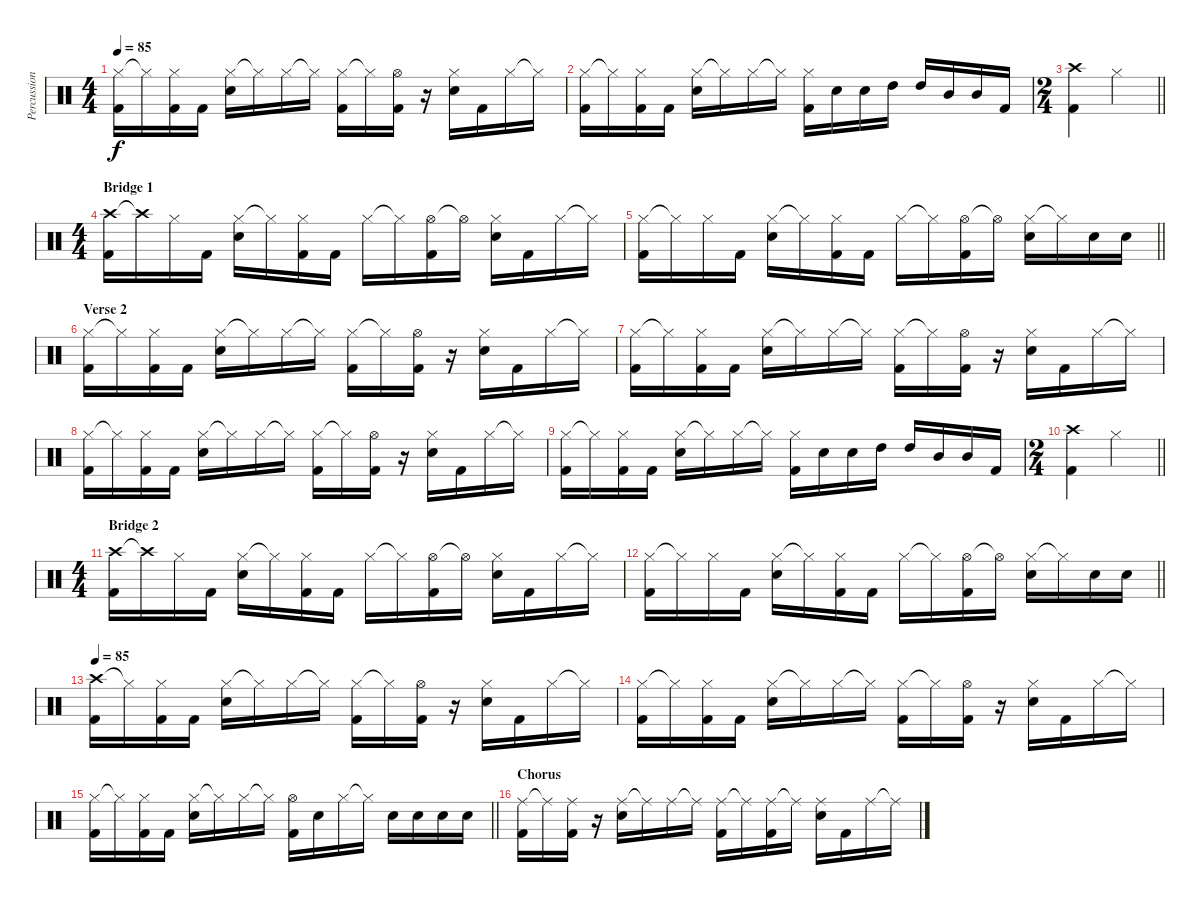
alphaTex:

\track ("Percussion" "Percussion") {instrument percussion}
\staff {score}
\articulation defaults
\ts (4 4)
\tempo 85
\clef neutral
\ks c
("Hi-Hat (closed)" "Kick (hit) 2").16{dy f} "Hi-Hat (closed)"{t}.16 ("Hi-Hat (closed)" "Kick (hit) 2").16 "Kick (hit) 2".16 ("Hi-Hat (closed)" "Electric Snare (hit)").16 "Hi-Hat (closed)"{t}.16 "Hi-Hat (closed)".16 "Hi-Hat (closed)"{t}.16 ("Hi-Hat (closed)" "Kick (hit) 2").16 "Hi-Hat (closed)"{t}.16 ("Hi-Hat (open)" "Kick (hit) 2").16 r.16 ("Hi-Hat (closed)" "Electric Snare (hit)").16 "Kick (hit) 2".16 "Hi-Hat (closed)".16 "Hi-Hat (closed)"{t}.16 |
("Hi-Hat (closed)" "Kick (hit) 2").16 "Hi-Hat (closed)"{t}.16 ("Hi-Hat (closed)" "Kick (hit) 2").16 "Kick (hit) 2".16 ("Hi-Hat (closed)" "Electric Snare (hit)").16 "Hi-Hat (closed)"{t}.16 "Hi-Hat (closed)".16 "Hi-Hat (closed)"{t}.16 ("Hi-Hat (closed)" "Kick (hit) 2").16 "Electric Snare (hit)".16 "Electric Snare (hit)".16 "High Tom (hit)".16 "High Tom (hit)".16 "Mid Tom (hit)".16 "Mid Tom (hit)".16 "Kick (hit) 2".16 |
\ts (2 4)
\barLineRight lightlight
("Crash high (hit)" "Kick (hit) 2").4 "Hi-Hat (closed)".4 |
\ts (4 4)
\section ("" "Bridge 1")
("Crash high (hit)" "Kick (hit) 2").16 "Crash high (hit)"{t}.16 "Hi-Hat (closed)".16 "Kick (hit) 2".16 ("Hi-Hat (closed)" "Electric Snare (hit)").16 "Hi-Hat (closed)"{t}.16 ("Hi-Hat (closed)" "Kick (hit) 2").16 "Kick (hit) 2".16 "Hi-Hat (closed)".16 "Hi-Hat (closed)"{t}.16 ("Hi-Hat (open)" "Kick (hit) 2").16 "Hi-Hat (open)"{t}.16 ("Hi-Hat (closed)" "Electric Snare (hit)").16 "Kick (hit) 2".16 "Hi-Hat (closed)".16 "Hi-Hat (closed)"{t}.16 |
\barLineRight lightlight
("Hi-Hat (closed)" "Kick (hit) 2").16 "Hi-Hat (closed)"{t}.16 "Hi-Hat (closed)".16 "Kick (hit) 2".16 ("Hi-Hat (closed)" "Electric Snare (hit)").16 "Hi-Hat (closed)"{t}.16 ("Hi-Hat (closed)" "Kick (hit) 2").16 "Kick (hit) 2".16 "Hi-Hat (closed)".16 "Hi-Hat (closed)"{t}.16 ("Hi-Hat (open)" "Kick (hit) 2").16 "Hi-Hat (open)"{t}.16 ("Hi-Hat (closed)" "Electric Snare (hit)").16 "Hi-Hat (closed)"{t}.16 "Electric Snare (hit)".16 "Electric Snare (hit)".16 |
\section ("" "Verse 2")
("Hi-Hat (closed)" "Kick (hit) 2").16 "Hi-Hat (closed)"{t}.16 ("Hi-Hat (closed)" "Kick (hit) 2").16 "Kick (hit) 2".16 ("Hi-Hat (closed)" "Electric Snare (hit)").16 "Hi-Hat (closed)"{t}.16 "Hi-Hat (closed)".16 "Hi-Hat (closed)"{t}.16 ("Hi-Hat (closed)" "Kick (hit) 2").16 "Hi-Hat (closed)"{t}.16 ("Hi-Hat (open)" "Kick (hit) 2").16 r.16 ("Hi-Hat (closed)" "Electric Snare (hit)").16 "Kick (hit) 2".16 "Hi-Hat (closed)".16 "Hi-Hat (closed)"{t}.16 |
("Hi-Hat (closed)" "Kick (hit) 2").16 "Hi-Hat (closed)"{t}.16 ("Hi-Hat (closed)" "Kick (hit) 2").16 "Kick (hit) 2".16 ("Hi-Hat (closed)" "Electric Snare (hit)").16 "Hi-Hat (closed)"{t}.16 "Hi-Hat (closed)".16 "Hi-Hat (closed)"{t}.16 ("Hi-Hat (closed)" "Kick (hit) 2").16 "Hi-Hat (closed)"{t}.16 ("Hi-Hat (open)" "Kick (hit) 2").16 r.16 ("Hi-Hat (closed)" "Electric Snare (hit)").16 "Kick (hit) 2".16 "Hi-Hat (closed)".16 "Hi-Hat (closed)"{t}.16 |
("Hi-Hat (closed)" "Kick (hit) 2").16 "Hi-Hat (closed)"{t}.16 ("Hi-Hat (closed)" "Kick (hit) 2").16 "Kick (hit) 2".16 ("Hi-Hat (closed)" "Electric Snare (hit)").16 "Hi-Hat (closed)"{t}.16 "Hi-Hat (closed)".16 "Hi-Hat (closed)"{t}.16 ("Hi-Hat (closed)" "Kick (hit) 2").16 "Hi-Hat (closed)"{t}.16 ("Hi-Hat (open)" "Kick (hit) 2").16 r.16 ("Hi-Hat (closed)" "Electric Snare (hit)").16 "Kick (hit) 2".16 "Hi-Hat (closed)".16 "Hi-Hat (closed)"{t}.16 |
("Hi-Hat (closed)" "Kick (hit) 2").16 "Hi-Hat (closed)"{t}.16 ("Hi-Hat (closed)" "Kick (hit) 2").16 "Kick (hit) 2".16 ("Hi-Hat (closed)" "Electric Snare (hit)").16 "Hi-Hat (closed)"{t}.16 "Hi-Hat (closed)".16 "Hi-Hat (closed)"{t}.16 ("Hi-Hat (closed)" "Kick (hit) 2").16 "Electric Snare (hit)".16 "Electric Snare (hit)".16 "High Tom (hit)".16 "High Tom (hit)".16 "Mid Tom (hit)".16 "Mid Tom (hit)".16 "Kick (hit) 2".16 |
\ts (2 4)
\barLineRight lightlight
("Crash high (hit)" "Kick (hit) 2").4 "Hi-Hat (closed)".4 |
\ts (4 4)
\section ("" "Bridge 2")
("Crash high (hit)" "Kick (hit) 2").16 "Crash high (hit)"{t}.16 "Hi-Hat (closed)".16 "Kick (hit) 2".16 ("Hi-Hat (closed)" "Electric Snare (hit)").16 "Hi-Hat (closed)"{t}.16 ("Hi-Hat (closed)" "Kick (hit) 2").16 "Kick (hit) 2".16 "Hi-Hat (closed)".16 "Hi-Hat (closed)"{t}.16 ("Hi-Hat (open)" "Kick (hit) 2").16 "Hi-Hat (open)"{t}.16 ("Hi-Hat (closed)" "Electric Snare (hit)").16 "Kick (hit) 2".16 "Hi-Hat (closed)".16 "Hi-Hat (closed)"{t}.16 |
\barLineRight lightlight
("Hi-Hat (closed)" "Kick (hit) 2").16 "Hi-Hat (closed)"{t}.16 "Hi-Hat (closed)".16 "Kick (hit) 2".16 ("Hi-Hat (closed)" "Electric Snare (hit)").16 "Hi-Hat (closed)"{t}.16 ("Hi-Hat (closed)" "Kick (hit) 2").16 "Kick (hit) 2".16 "Hi-Hat (closed)".16 "Hi-Hat (closed)"{t}.16 ("Hi-Hat (open)" "Kick (hit) 2").16 "Hi-Hat (open)"{t}.16 ("Hi-Hat (closed)" "Electric Snare (hit)").16 "Hi-Hat (closed)"{t}.16 "Electric Snare (hit)".16 "Electric Snare (hit)".16 |
\tempo 85
("Crash high (hit)" "Kick (hit) 2").16 "Hi-Hat (closed)"{t}.16 ("Hi-Hat (closed)" "Kick (hit) 2").16 "Kick (hit) 2".16 ("Hi-Hat (closed)" "Electric Snare (hit)").16 "Hi-Hat (closed)"{t}.16 "Hi-Hat (closed)".16 "Hi-Hat (closed)"{t}.16 ("Hi-Hat (closed)" "Kick (hit) 2").16 "Hi-Hat (closed)"{t}.16 ("Hi-Hat (open)" "Kick (hit) 2").16 r.16 ("Hi-Hat (closed)" "Electric Snare (hit)").16 "Kick (hit) 2".16 "Hi-Hat (closed)".16 "Hi-Hat (closed)"{t}.16 |
("Hi-Hat (closed)" "Kick (hit) 2").16 "Hi-Hat (closed)"{t}.16 ("Hi-Hat (closed)" "Kick (hit) 2").16 "Kick (hit) 2".16 ("Hi-Hat (closed)" "Electric Snare (hit)").16 "Hi-Hat (closed)"{t}.16 "Hi-Hat (closed)".16 "Hi-Hat (closed)"{t}.16 ("Hi-Hat (closed)" "Kick (hit) 2").16 "Hi-Hat (closed)"{t}.16 ("Hi-Hat (open)" "Kick (hit) 2").16 r.16 ("Hi-Hat (closed)" "Electric Snare (hit)").16 "Kick (hit) 2".16 "Hi-Hat (closed)".16 "Hi-Hat (closed)"{t}.16 |
\barLineRight lightlight
("Hi-Hat (closed)" "Kick (hit) 2").16 "Hi-Hat (closed)"{t}.16 ("Hi-Hat (closed)" "Kick (hit) 2").16 "Kick (hit) 2".16 ("Hi-Hat (closed)" "Electric Snare (hit)").16 "Hi-Hat (closed)"{t}.16 "Hi-Hat (closed)".16 "Hi-Hat (closed)"{t}.16 ("Hi-Hat (open)" "Kick (hit) 2").16 "Electric Snare (hit)".16 "Hi-Hat (closed)".16 "Hi-Hat (closed)"{t}.16 "Electric Snare (hit)".16 "Electric Snare (hit)".16 "Electric Snare (hit)".16 "Electric Snare (hit)".16 |
\section ("" "Chorus")
("Ride (middle)" "Kick (hit) 2").16 "Ride (middle)"{t}.16 ("Ride (middle)" "Kick (hit) 2").16 r.16 ("Ride (middle)" "Electric Snare (hit)").16 "Ride (middle)"{t}.16 "Ride (middle)".16 "Ride (middle)"{t}.16 ("Ride (middle)" "Kick (hit) 2").16 "Ride (middle)"{t}.16 ("Ride (middle)" "Kick (hit) 2").16 "Ride (middle)"{t}.16 ("Ride (middle)" "Electric Snare (hit)").16 "Kick (hit) 2".16 "Ride (middle)".16 "Ride (middle)"{t}.16
